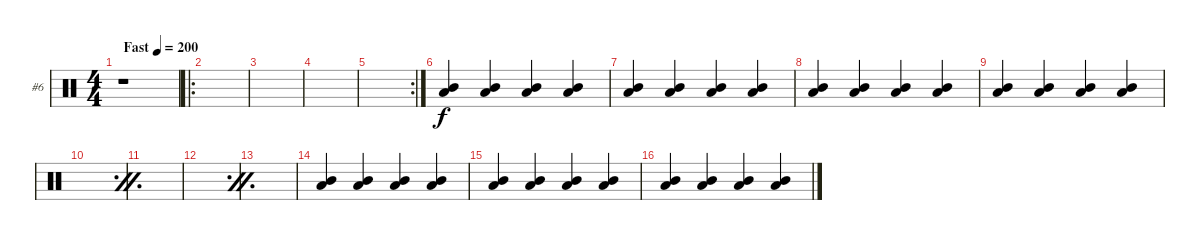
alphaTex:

\bracketExtendMode groupsimilarinstruments
\firstSystemTrackNameOrientation horizontal
\otherSystemsTrackNameOrientation horizontal
\track ("Shawn \"Clown\" Crahan" "#6") {instrument percussion}
\staff {score}
\articulation defaults
\ts (4 4)
\beaming (8 2 2 2 2)
\tempo (200 "Fast")
\clef neutral
\ks c
r.1{dy f} |
\ro
|
|
|
\rc 2
|
("Low Tom (hit)" "Mid Tom (hit)").4 ("Low Tom (hit)" "Mid Tom (hit)").4 ("Low Tom (hit)" "Mid Tom (hit)").4 ("Low Tom (hit)" "Mid Tom (hit)").4 |
("Low Tom (hit)" "Mid Tom (hit)").4 ("Low Tom (hit)" "Mid Tom (hit)").4 ("Low Tom (hit)" "Mid Tom (hit)").4 ("Low Tom (hit)" "Mid Tom (hit)").4 |
("Low Tom (hit)" "Mid Tom (hit)").4 ("Low Tom (hit)" "Mid Tom (hit)").4 ("Low Tom (hit)" "Mid Tom (hit)").4 ("Low Tom (hit)" "Mid Tom (hit)").4 |
("Low Tom (hit)" "Mid Tom (hit)").4 ("Low Tom (hit)" "Mid Tom (hit)").4 ("Low Tom (hit)" "Mid Tom (hit)").4 ("Low Tom (hit)" "Mid Tom (hit)").4 |
\simile firstofdouble
|
\simile secondofdouble
|
\simile firstofdouble
|
\simile secondofdouble
|
\simile none
("Low Tom (hit)" "Mid Tom (hit)").4 ("Low Tom (hit)" "Mid Tom (hit)").4 ("Low Tom (hit)" "Mid Tom (hit)").4 ("Low Tom (hit)" "Mid Tom (hit)").4 |
("Low Tom (hit)" "Mid Tom (hit)").4 ("Low Tom (hit)" "Mid Tom (hit)").4 ("Low Tom (hit)" "Mid Tom (hit)").4 ("Low Tom (hit)" "Mid Tom (hit)").4 |
("Low Tom (hit)" "Mid Tom (hit)").4 ("Low Tom (hit)" "Mid Tom (hit)").4 ("Low Tom (hit)" "Mid Tom (hit)").4 ("Low Tom (hit)" "Mid Tom (hit)").4
